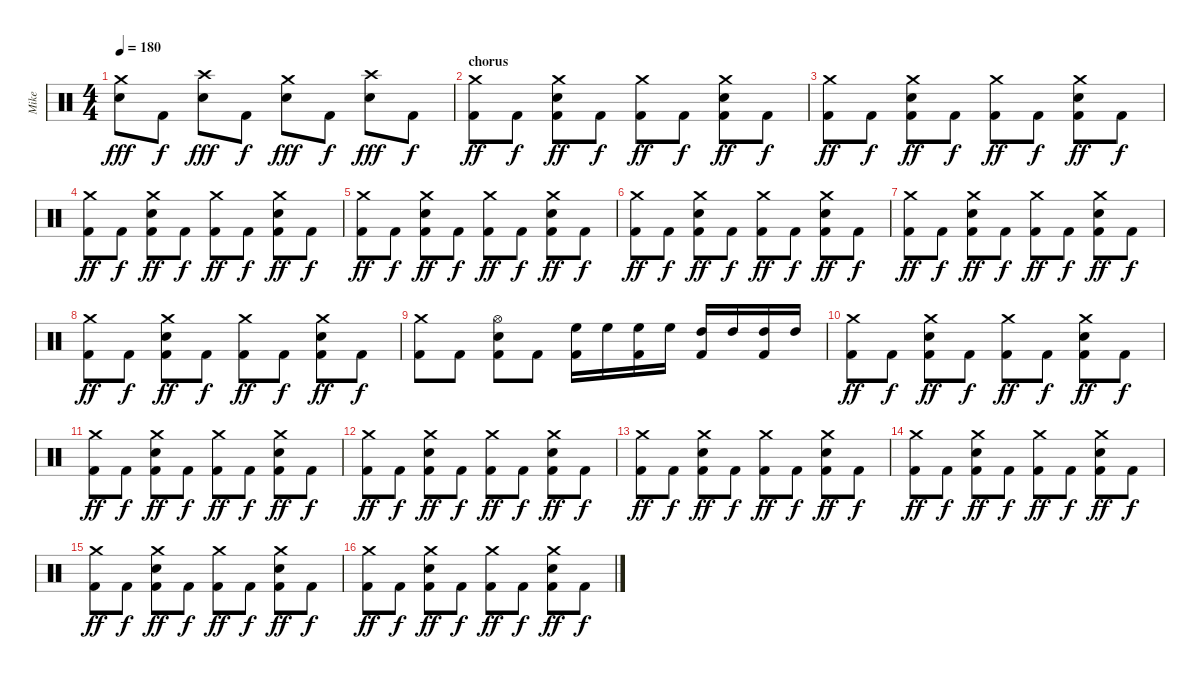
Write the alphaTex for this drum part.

\track ("Mike" "Mike") {instrument percussion}
\staff {score}
\articulation defaults
\ts (4 4)
\tempo 180
\clef neutral
\ks c
("Crash medium (hit)" "Snare (hit) 2").8{dy fff} "Kick (hit) 2".8{dy f} ("Crash high (hit)" "Snare (hit) 2").8{dy fff} "Kick (hit) 2".8{dy f} ("Crash medium (hit)" "Snare (hit) 2").8{dy fff} "Kick (hit) 2".8{dy f} ("Crash high (hit)" "Snare (hit) 2").8{dy fff} "Kick (hit) 2".8{dy f} |
\section ("" "chorus")
("Crash medium (hit)" "Kick (hit) 2").8{dy ff} "Kick (hit) 2".8{dy f} ("Crash medium (hit)" "Snare (hit) 2" "Kick (hit) 2").8{dy ff} "Kick (hit) 2".8{dy f} ("Crash medium (hit)" "Kick (hit) 2").8{dy ff} "Kick (hit) 2".8{dy f} ("Crash medium (hit)" "Snare (hit) 2" "Kick (hit) 2").8{dy ff} "Kick (hit) 2".8{dy f} |
("Crash medium (hit)" "Kick (hit) 2").8{dy ff} "Kick (hit) 2".8{dy f} ("Crash medium (hit)" "Snare (hit) 2" "Kick (hit) 2").8{dy ff} "Kick (hit) 2".8{dy f} ("Crash medium (hit)" "Kick (hit) 2").8{dy ff} "Kick (hit) 2".8{dy f} ("Crash medium (hit)" "Snare (hit) 2" "Kick (hit) 2").8{dy ff} "Kick (hit) 2".8{dy f} |
("Crash medium (hit)" "Kick (hit) 2").8{dy ff} "Kick (hit) 2".8{dy f} ("Crash medium (hit)" "Snare (hit) 2" "Kick (hit) 2").8{dy ff} "Kick (hit) 2".8{dy f} ("Crash medium (hit)" "Kick (hit) 2").8{dy ff} "Kick (hit) 2".8{dy f} ("Crash medium (hit)" "Snare (hit) 2" "Kick (hit) 2").8{dy ff} "Kick (hit) 2".8{dy f} |
("Crash medium (hit)" "Kick (hit) 2").8{dy ff} "Kick (hit) 2".8{dy f} ("Crash medium (hit)" "Snare (hit) 2" "Kick (hit) 2").8{dy ff} "Kick (hit) 2".8{dy f} ("Crash medium (hit)" "Kick (hit) 2").8{dy ff} "Kick (hit) 2".8{dy f} ("Crash medium (hit)" "Snare (hit) 2" "Kick (hit) 2").8{dy ff} "Kick (hit) 2".8{dy f} |
("Crash medium (hit)" "Kick (hit) 2").8{dy ff} "Kick (hit) 2".8{dy f} ("Crash medium (hit)" "Snare (hit) 2" "Kick (hit) 2").8{dy ff} "Kick (hit) 2".8{dy f} ("Crash medium (hit)" "Kick (hit) 2").8{dy ff} "Kick (hit) 2".8{dy f} ("Crash medium (hit)" "Snare (hit) 2" "Kick (hit) 2").8{dy ff} "Kick (hit) 2".8{dy f} |
("Crash medium (hit)" "Kick (hit) 2").8{dy ff} "Kick (hit) 2".8{dy f} ("Crash medium (hit)" "Snare (hit) 2" "Kick (hit) 2").8{dy ff} "Kick (hit) 2".8{dy f} ("Crash medium (hit)" "Kick (hit) 2").8{dy ff} "Kick (hit) 2".8{dy f} ("Crash medium (hit)" "Snare (hit) 2" "Kick (hit) 2").8{dy ff} "Kick (hit) 2".8{dy f} |
("Crash medium (hit)" "Kick (hit) 2").8{dy ff} "Kick (hit) 2".8{dy f} ("Crash medium (hit)" "Snare (hit) 2" "Kick (hit) 2").8{dy ff} "Kick (hit) 2".8{dy f} ("Crash medium (hit)" "Kick (hit) 2").8{dy ff} "Kick (hit) 2".8{dy f} ("Crash medium (hit)" "Snare (hit) 2" "Kick (hit) 2").8{dy ff} "Kick (hit) 2".8{dy f} |
("Crash medium (hit)" "Kick (hit) 2").8 "Kick (hit) 2".8 ("Hi-Hat (open)" "Snare (hit) 2" "Kick (hit) 2").8 "Kick (hit) 2".8 ("High Floor Tom (hit)" "Kick (hit) 2").16 "High Floor Tom (hit)".16 ("High Floor Tom (hit)" "Kick (hit) 2").16 "High Floor Tom (hit)".16 ("High Tom (hit)" "Kick (hit) 2").16 "High Tom (hit)".16 ("High Tom (hit)" "Kick (hit) 2").16 "High Tom (hit)".16 |
("Crash medium (hit)" "Kick (hit) 2").8{dy ff} "Kick (hit) 2".8{dy f} ("Crash medium (hit)" "Snare (hit) 2" "Kick (hit) 2").8{dy ff} "Kick (hit) 2".8{dy f} ("Crash medium (hit)" "Kick (hit) 2").8{dy ff} "Kick (hit) 2".8{dy f} ("Crash medium (hit)" "Snare (hit) 2" "Kick (hit) 2").8{dy ff} "Kick (hit) 2".8{dy f} |
("Crash medium (hit)" "Kick (hit) 2").8{dy ff} "Kick (hit) 2".8{dy f} ("Crash medium (hit)" "Snare (hit) 2" "Kick (hit) 2").8{dy ff} "Kick (hit) 2".8{dy f} ("Crash medium (hit)" "Kick (hit) 2").8{dy ff} "Kick (hit) 2".8{dy f} ("Crash medium (hit)" "Snare (hit) 2" "Kick (hit) 2").8{dy ff} "Kick (hit) 2".8{dy f} |
("Crash medium (hit)" "Kick (hit) 2").8{dy ff} "Kick (hit) 2".8{dy f} ("Crash medium (hit)" "Snare (hit) 2" "Kick (hit) 2").8{dy ff} "Kick (hit) 2".8{dy f} ("Crash medium (hit)" "Kick (hit) 2").8{dy ff} "Kick (hit) 2".8{dy f} ("Crash medium (hit)" "Snare (hit) 2" "Kick (hit) 2").8{dy ff} "Kick (hit) 2".8{dy f} |
("Crash medium (hit)" "Kick (hit) 2").8{dy ff} "Kick (hit) 2".8{dy f} ("Crash medium (hit)" "Snare (hit) 2" "Kick (hit) 2").8{dy ff} "Kick (hit) 2".8{dy f} ("Crash medium (hit)" "Kick (hit) 2").8{dy ff} "Kick (hit) 2".8{dy f} ("Crash medium (hit)" "Snare (hit) 2" "Kick (hit) 2").8{dy ff} "Kick (hit) 2".8{dy f} |
("Crash medium (hit)" "Kick (hit) 2").8{dy ff} "Kick (hit) 2".8{dy f} ("Crash medium (hit)" "Snare (hit) 2" "Kick (hit) 2").8{dy ff} "Kick (hit) 2".8{dy f} ("Crash medium (hit)" "Kick (hit) 2").8{dy ff} "Kick (hit) 2".8{dy f} ("Crash medium (hit)" "Snare (hit) 2" "Kick (hit) 2").8{dy ff} "Kick (hit) 2".8{dy f} |
("Crash medium (hit)" "Kick (hit) 2").8{dy ff} "Kick (hit) 2".8{dy f} ("Crash medium (hit)" "Snare (hit) 2" "Kick (hit) 2").8{dy ff} "Kick (hit) 2".8{dy f} ("Crash medium (hit)" "Kick (hit) 2").8{dy ff} "Kick (hit) 2".8{dy f} ("Crash medium (hit)" "Snare (hit) 2" "Kick (hit) 2").8{dy ff} "Kick (hit) 2".8{dy f} |
("Crash medium (hit)" "Kick (hit) 2").8{dy ff} "Kick (hit) 2".8{dy f} ("Crash medium (hit)" "Snare (hit) 2" "Kick (hit) 2").8{dy ff} "Kick (hit) 2".8{dy f} ("Crash medium (hit)" "Kick (hit) 2").8{dy ff} "Kick (hit) 2".8{dy f} ("Crash medium (hit)" "Snare (hit) 2" "Kick (hit) 2").8{dy ff} "Kick (hit) 2".8{dy f}
